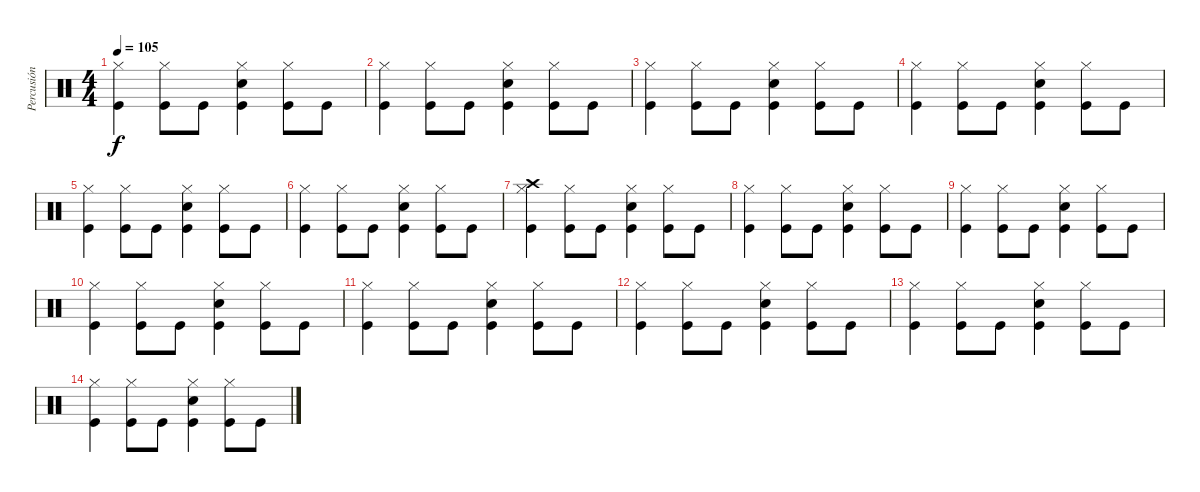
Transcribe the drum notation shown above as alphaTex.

\track ("Percusión" "Percusión") {instrument percussion}
\staff {score}
\articulation defaults
\ts (4 4)
\tempo 105
\clef neutral
\ks c
("Hi-Hat (closed)" "Kick (hit)").4{dy f} ("Hi-Hat (closed)" "Kick (hit)").8 "Kick (hit)".8 ("Hi-Hat (closed)" "Snare (hit) 2" "Kick (hit)").4 ("Hi-Hat (closed)" "Kick (hit)").8 "Kick (hit)".8 |
("Hi-Hat (closed)" "Kick (hit)").4 ("Hi-Hat (closed)" "Kick (hit)").8 "Kick (hit)".8 ("Hi-Hat (closed)" "Snare (hit) 2" "Kick (hit)").4 ("Hi-Hat (closed)" "Kick (hit)").8 "Kick (hit)".8 |
("Hi-Hat (closed)" "Kick (hit)").4 ("Hi-Hat (closed)" "Kick (hit)").8 "Kick (hit)".8 ("Hi-Hat (closed)" "Snare (hit) 2" "Kick (hit)").4 ("Hi-Hat (closed)" "Kick (hit)").8 "Kick (hit)".8 |
("Hi-Hat (closed)" "Kick (hit)").4 ("Hi-Hat (closed)" "Kick (hit)").8 "Kick (hit)".8 ("Hi-Hat (closed)" "Snare (hit) 2" "Kick (hit)").4 ("Hi-Hat (closed)" "Kick (hit)").8 "Kick (hit)".8 |
("Hi-Hat (closed)" "Kick (hit)").4 ("Hi-Hat (closed)" "Kick (hit)").8 "Kick (hit)".8 ("Hi-Hat (closed)" "Snare (hit) 2" "Kick (hit)").4 ("Hi-Hat (closed)" "Kick (hit)").8 "Kick (hit)".8 |
("Hi-Hat (closed)" "Kick (hit)").4 ("Hi-Hat (closed)" "Kick (hit)").8 "Kick (hit)".8 ("Hi-Hat (closed)" "Snare (hit) 2" "Kick (hit)").4 ("Hi-Hat (closed)" "Kick (hit)").8 "Kick (hit)".8 |
("Hi-Hat (closed)" "Crash high (hit)" "Kick (hit)").4{volume 11} ("Hi-Hat (closed)" "Kick (hit)").8 "Kick (hit)".8 ("Hi-Hat (closed)" "Snare (hit) 2" "Kick (hit)").4 ("Hi-Hat (closed)" "Kick (hit)").8 "Kick (hit)".8 |
("Hi-Hat (closed)" "Kick (hit)").4 ("Hi-Hat (closed)" "Kick (hit)").8 "Kick (hit)".8 ("Hi-Hat (closed)" "Snare (hit) 2" "Kick (hit)").4 ("Hi-Hat (closed)" "Kick (hit)").8 "Kick (hit)".8 |
("Hi-Hat (closed)" "Kick (hit)").4 ("Hi-Hat (closed)" "Kick (hit)").8 "Kick (hit)".8 ("Hi-Hat (closed)" "Snare (hit) 2" "Kick (hit)").4 ("Hi-Hat (closed)" "Kick (hit)").8 "Kick (hit)".8 |
("Hi-Hat (closed)" "Kick (hit)").4 ("Hi-Hat (closed)" "Kick (hit)").8 "Kick (hit)".8 ("Hi-Hat (closed)" "Snare (hit) 2" "Kick (hit)").4 ("Hi-Hat (closed)" "Kick (hit)").8 "Kick (hit)".8 |
("Hi-Hat (closed)" "Kick (hit)").4{volume 5} ("Hi-Hat (closed)" "Kick (hit)").8 "Kick (hit)".8 ("Hi-Hat (closed)" "Snare (hit) 2" "Kick (hit)").4 ("Hi-Hat (closed)" "Kick (hit)").8 "Kick (hit)".8 |
("Hi-Hat (closed)" "Kick (hit)").4 ("Hi-Hat (closed)" "Kick (hit)").8 "Kick (hit)".8 ("Hi-Hat (closed)" "Snare (hit) 2" "Kick (hit)").4 ("Hi-Hat (closed)" "Kick (hit)").8 "Kick (hit)".8 |
("Hi-Hat (closed)" "Kick (hit)").4 ("Hi-Hat (closed)" "Kick (hit)").8 "Kick (hit)".8 ("Hi-Hat (closed)" "Snare (hit) 2" "Kick (hit)").4 ("Hi-Hat (closed)" "Kick (hit)").8 "Kick (hit)".8 |
("Hi-Hat (closed)" "Kick (hit)").4 ("Hi-Hat (closed)" "Kick (hit)").8 "Kick (hit)".8 ("Hi-Hat (closed)" "Snare (hit) 2" "Kick (hit)").4 ("Hi-Hat (closed)" "Kick (hit)").8 "Kick (hit)".8
